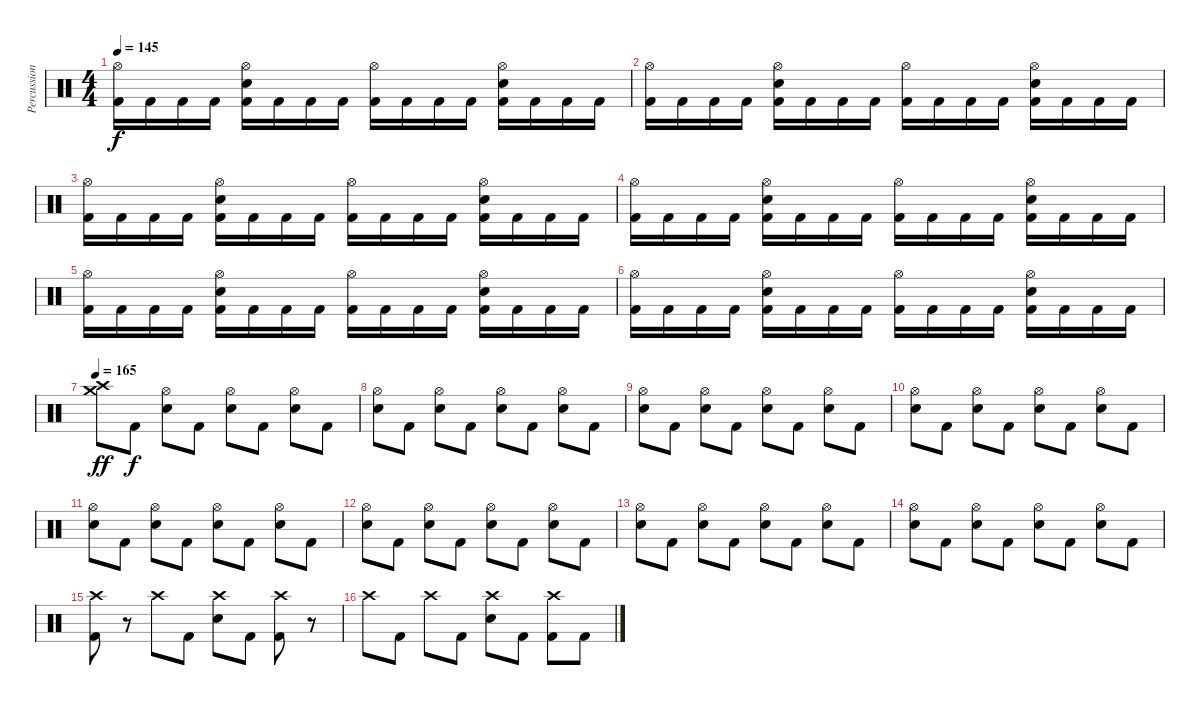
\track ("Percussion" "Percussion") {instrument percussion}
\staff {score}
\articulation defaults
\ts (4 4)
\tempo 145
\clef neutral
\ks c
("Hi-Hat (open)" "Kick (hit) 2").16{dy f} "Kick (hit) 2".16 "Kick (hit) 2".16 "Kick (hit) 2".16 ("Hi-Hat (open)" "Snare (hit) 2" "Kick (hit) 2").16 "Kick (hit) 2".16 "Kick (hit) 2".16 "Kick (hit) 2".16 ("Hi-Hat (open)" "Kick (hit) 2").16 "Kick (hit) 2".16 "Kick (hit) 2".16 "Kick (hit) 2".16 ("Hi-Hat (open)" "Snare (hit) 2" "Kick (hit) 2").16 "Kick (hit) 2".16 "Kick (hit) 2".16 "Kick (hit) 2".16 |
("Hi-Hat (open)" "Kick (hit) 2").16 "Kick (hit) 2".16 "Kick (hit) 2".16 "Kick (hit) 2".16 ("Hi-Hat (open)" "Snare (hit) 2" "Kick (hit) 2").16 "Kick (hit) 2".16 "Kick (hit) 2".16 "Kick (hit) 2".16 ("Hi-Hat (open)" "Kick (hit) 2").16 "Kick (hit) 2".16 "Kick (hit) 2".16 "Kick (hit) 2".16 ("Hi-Hat (open)" "Snare (hit) 2" "Kick (hit) 2").16 "Kick (hit) 2".16 "Kick (hit) 2".16 "Kick (hit) 2".16 |
("Hi-Hat (open)" "Kick (hit) 2").16 "Kick (hit) 2".16 "Kick (hit) 2".16 "Kick (hit) 2".16 ("Hi-Hat (open)" "Snare (hit) 2" "Kick (hit) 2").16 "Kick (hit) 2".16 "Kick (hit) 2".16 "Kick (hit) 2".16 ("Hi-Hat (open)" "Kick (hit) 2").16 "Kick (hit) 2".16 "Kick (hit) 2".16 "Kick (hit) 2".16 ("Hi-Hat (open)" "Snare (hit) 2" "Kick (hit) 2").16 "Kick (hit) 2".16 "Kick (hit) 2".16 "Kick (hit) 2".16 |
("Hi-Hat (open)" "Kick (hit) 2").16 "Kick (hit) 2".16 "Kick (hit) 2".16 "Kick (hit) 2".16 ("Hi-Hat (open)" "Snare (hit) 2" "Kick (hit) 2").16 "Kick (hit) 2".16 "Kick (hit) 2".16 "Kick (hit) 2".16 ("Hi-Hat (open)" "Kick (hit) 2").16 "Kick (hit) 2".16 "Kick (hit) 2".16 "Kick (hit) 2".16 ("Hi-Hat (open)" "Snare (hit) 2" "Kick (hit) 2").16 "Kick (hit) 2".16 "Kick (hit) 2".16 "Kick (hit) 2".16 |
("Hi-Hat (open)" "Kick (hit) 2").16 "Kick (hit) 2".16 "Kick (hit) 2".16 "Kick (hit) 2".16 ("Hi-Hat (open)" "Snare (hit) 2" "Kick (hit) 2").16 "Kick (hit) 2".16 "Kick (hit) 2".16 "Kick (hit) 2".16 ("Hi-Hat (open)" "Kick (hit) 2").16 "Kick (hit) 2".16 "Kick (hit) 2".16 "Kick (hit) 2".16 ("Hi-Hat (open)" "Snare (hit) 2" "Kick (hit) 2").16 "Kick (hit) 2".16 "Kick (hit) 2".16 "Kick (hit) 2".16 |
("Hi-Hat (open)" "Kick (hit) 2").16 "Kick (hit) 2".16 "Kick (hit) 2".16 "Kick (hit) 2".16 ("Hi-Hat (open)" "Snare (hit) 2" "Kick (hit) 2").16 "Kick (hit) 2".16 "Kick (hit) 2".16 "Kick (hit) 2".16 ("Hi-Hat (open)" "Kick (hit) 2").16 "Kick (hit) 2".16 "Kick (hit) 2".16 "Kick (hit) 2".16 ("Hi-Hat (open)" "Snare (hit) 2" "Kick (hit) 2").16 "Kick (hit) 2".16 "Kick (hit) 2".16 "Kick (hit) 2".16 |
\tempo 165
("Crash high (hit)" "Crash medium (hit)").8{dy ff} "Kick (hit) 2".8{dy f} ("Hi-Hat (open)" "Snare (hit) 2").8 "Kick (hit) 2".8 ("Hi-Hat (open)" "Snare (hit) 2").8 "Kick (hit) 2".8 ("Hi-Hat (open)" "Snare (hit) 2").8 "Kick (hit) 2".8 |
("Hi-Hat (open)" "Snare (hit) 2").8 "Kick (hit) 2".8 ("Hi-Hat (open)" "Snare (hit) 2").8 "Kick (hit) 2".8 ("Hi-Hat (open)" "Snare (hit) 2").8 "Kick (hit) 2".8 ("Hi-Hat (open)" "Snare (hit) 2").8 "Kick (hit) 2".8 |
("Hi-Hat (open)" "Snare (hit) 2").8 "Kick (hit) 2".8 ("Hi-Hat (open)" "Snare (hit) 2").8 "Kick (hit) 2".8 ("Hi-Hat (open)" "Snare (hit) 2").8 "Kick (hit) 2".8 ("Hi-Hat (open)" "Snare (hit) 2").8 "Kick (hit) 2".8 |
("Hi-Hat (open)" "Snare (hit) 2").8 "Kick (hit) 2".8 ("Hi-Hat (open)" "Snare (hit) 2").8 "Kick (hit) 2".8 ("Hi-Hat (open)" "Snare (hit) 2").8 "Kick (hit) 2".8 ("Hi-Hat (open)" "Snare (hit) 2").8 "Kick (hit) 2".8 |
("Hi-Hat (open)" "Snare (hit) 2").8 "Kick (hit) 2".8 ("Hi-Hat (open)" "Snare (hit) 2").8 "Kick (hit) 2".8 ("Hi-Hat (open)" "Snare (hit) 2").8 "Kick (hit) 2".8 ("Hi-Hat (open)" "Snare (hit) 2").8 "Kick (hit) 2".8 |
("Hi-Hat (open)" "Snare (hit) 2").8 "Kick (hit) 2".8 ("Hi-Hat (open)" "Snare (hit) 2").8 "Kick (hit) 2".8 ("Hi-Hat (open)" "Snare (hit) 2").8 "Kick (hit) 2".8 ("Hi-Hat (open)" "Snare (hit) 2").8 "Kick (hit) 2".8 |
("Hi-Hat (open)" "Snare (hit) 2").8 "Kick (hit) 2".8 ("Hi-Hat (open)" "Snare (hit) 2").8 "Kick (hit) 2".8 ("Hi-Hat (open)" "Snare (hit) 2").8 "Kick (hit) 2".8 ("Hi-Hat (open)" "Snare (hit) 2").8 "Kick (hit) 2".8 |
("Hi-Hat (open)" "Snare (hit) 2").8 "Kick (hit) 2".8 ("Hi-Hat (open)" "Snare (hit) 2").8 "Kick (hit) 2".8 ("Hi-Hat (open)" "Snare (hit) 2").8 "Kick (hit) 2".8 ("Hi-Hat (open)" "Snare (hit) 2").8 "Kick (hit) 2".8 |
("Crash high (hit)" "Kick (hit) 2").8 r.8 "Crash high (hit)".8 "Kick (hit) 2".8 ("Crash high (hit)" "Snare (hit) 2").8 "Kick (hit) 2".8 ("Crash high (hit)" "Kick (hit) 2").8 r.8 |
"Crash high (hit)".8 "Kick (hit) 2".8 "Crash high (hit)".8 "Kick (hit) 2".8 ("Crash high (hit)" "Snare (hit) 2").8 "Kick (hit) 2".8 ("Crash high (hit)" "Kick (hit) 2").8 "Kick (hit) 2".8
